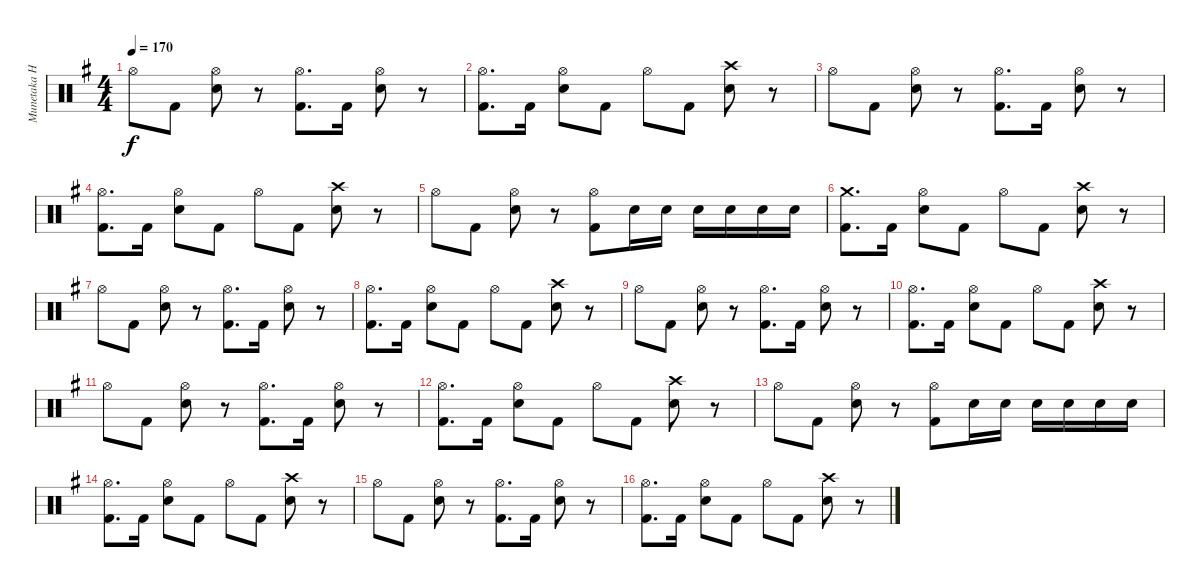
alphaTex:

\track ("Munetaka Higuchi" "Munetaka H") {instrument percussion}
\staff {score}
\articulation defaults
\ts (4 4)
\tempo 170
\clef neutral
\ks eminor "Hi-Hat (open)".8{dy f} "Kick (hit) 2".8
("Hi-Hat (open)" "Electric Snare (hit)").8 r.8 ("Hi-Hat (open)" "Kick (hit) 2").8{d} "Kick (hit) 2".16 ("Hi-Hat (open)" "Electric Snare (hit)").8 r.8 |
("Hi-Hat (open)" "Kick (hit) 2").8{d} "Kick (hit) 2".16 ("Hi-Hat (open)" "Electric Snare (hit)").8 "Kick (hit) 2".8 "Hi-Hat (open)".8 "Kick (hit) 2".8 ("Crash high (hit)" "Electric Snare (hit)").8 r.8 |
"Hi-Hat (open)".8 "Kick (hit) 2".8 ("Hi-Hat (open)" "Electric Snare (hit)").8 r.8 ("Hi-Hat (open)" "Kick (hit) 2").8{d} "Kick (hit) 2".16 ("Hi-Hat (open)" "Electric Snare (hit)").8 r.8 |
("Hi-Hat (open)" "Kick (hit) 2").8{d} "Kick (hit) 2".16 ("Hi-Hat (open)" "Electric Snare (hit)").8 "Kick (hit) 2".8 "Hi-Hat (open)".8 "Kick (hit) 2".8 ("Crash high (hit)" "Electric Snare (hit)").8 r.8 |
"Hi-Hat (open)".8 "Kick (hit) 2".8 ("Hi-Hat (open)" "Electric Snare (hit)").8 r.8 ("Hi-Hat (open)" "Kick (hit) 2").8 "Electric Snare (hit)".16 "Electric Snare (hit)".16 "Electric Snare (hit)".16 "Electric Snare (hit)".16 "Electric Snare (hit)".16 "Electric Snare (hit)".16 |
("Crash medium (hit)" "Kick (hit) 2").8{d} "Kick (hit) 2".16 ("Hi-Hat (open)" "Electric Snare (hit)").8 "Kick (hit) 2".8 "Hi-Hat (open)".8 "Kick (hit) 2".8 ("Crash high (hit)" "Electric Snare (hit)").8 r.8 |
"Hi-Hat (open)".8 "Kick (hit) 2".8 ("Hi-Hat (open)" "Electric Snare (hit)").8 r.8 ("Hi-Hat (open)" "Kick (hit) 2").8{d} "Kick (hit) 2".16 ("Hi-Hat (open)" "Electric Snare (hit)").8 r.8 |
("Hi-Hat (open)" "Kick (hit) 2").8{d} "Kick (hit) 2".16 ("Hi-Hat (open)" "Electric Snare (hit)").8 "Kick (hit) 2".8 "Hi-Hat (open)".8 "Kick (hit) 2".8 ("Crash high (hit)" "Electric Snare (hit)").8 r.8 |
"Hi-Hat (open)".8 "Kick (hit) 2".8 ("Hi-Hat (open)" "Electric Snare (hit)").8 r.8 ("Hi-Hat (open)" "Kick (hit) 2").8{d} "Kick (hit) 2".16 ("Hi-Hat (open)" "Electric Snare (hit)").8 r.8 |
("Hi-Hat (open)" "Kick (hit) 2").8{d} "Kick (hit) 2".16 ("Hi-Hat (open)" "Electric Snare (hit)").8 "Kick (hit) 2".8 "Hi-Hat (open)".8 "Kick (hit) 2".8 ("Crash high (hit)" "Electric Snare (hit)").8 r.8 |
"Hi-Hat (open)".8 "Kick (hit) 2".8 ("Hi-Hat (open)" "Electric Snare (hit)").8 r.8 ("Hi-Hat (open)" "Kick (hit) 2").8{d} "Kick (hit) 2".16 ("Hi-Hat (open)" "Electric Snare (hit)").8 r.8 |
("Hi-Hat (open)" "Kick (hit) 2").8{d} "Kick (hit) 2".16 ("Hi-Hat (open)" "Electric Snare (hit)").8 "Kick (hit) 2".8 "Hi-Hat (open)".8 "Kick (hit) 2".8 ("Crash high (hit)" "Electric Snare (hit)").8 r.8 |
"Hi-Hat (open)".8 "Kick (hit) 2".8 ("Hi-Hat (open)" "Electric Snare (hit)").8 r.8 ("Hi-Hat (open)" "Kick (hit) 2").8 "Electric Snare (hit)".16 "Electric Snare (hit)".16 "Electric Snare (hit)".16 "Electric Snare (hit)".16 "Electric Snare (hit)".16 "Electric Snare (hit)".16 |
("Hi-Hat (open)" "Kick (hit) 2").8{d} "Kick (hit) 2".16 ("Hi-Hat (open)" "Electric Snare (hit)").8 "Kick (hit) 2".8 "Hi-Hat (open)".8 "Kick (hit) 2".8 ("Crash high (hit)" "Electric Snare (hit)").8 r.8 |
"Hi-Hat (open)".8 "Kick (hit) 2".8 ("Hi-Hat (open)" "Electric Snare (hit)").8 r.8 ("Hi-Hat (open)" "Kick (hit) 2").8{d} "Kick (hit) 2".16 ("Hi-Hat (open)" "Electric Snare (hit)").8 r.8 |
("Hi-Hat (open)" "Kick (hit) 2").8{d} "Kick (hit) 2".16 ("Hi-Hat (open)" "Electric Snare (hit)").8 "Kick (hit) 2".8 "Hi-Hat (open)".8 "Kick (hit) 2".8 ("Crash high (hit)" "Electric Snare (hit)").8 r.8
